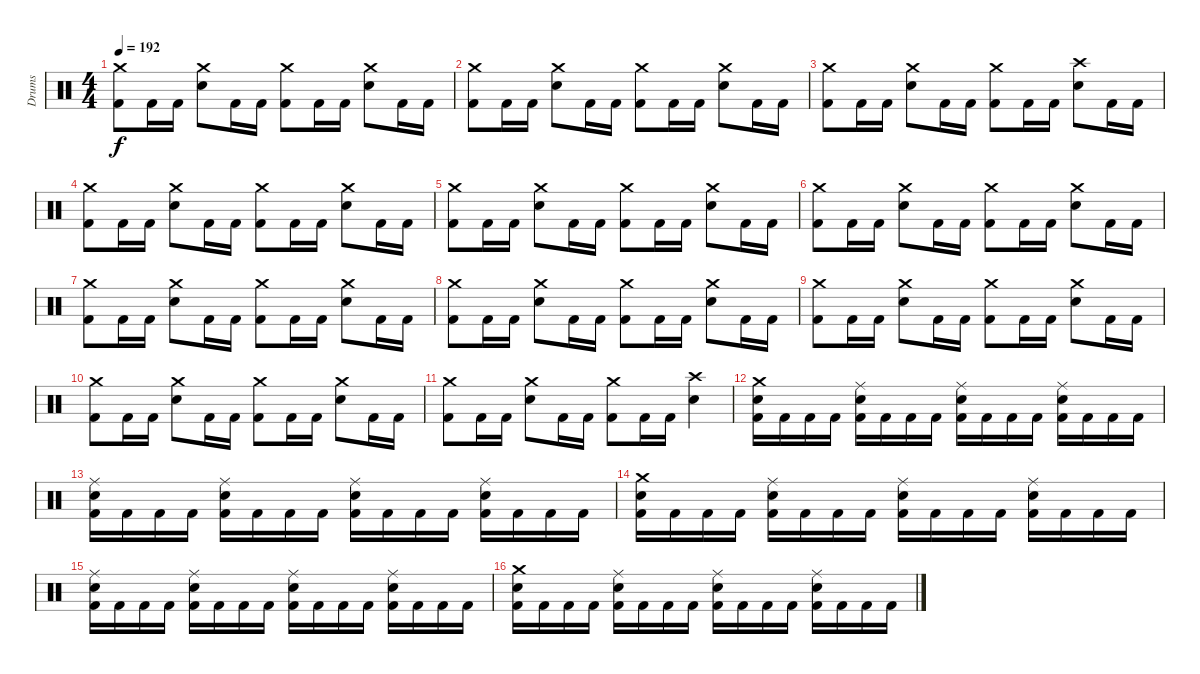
\track ("Drums" "Drums") {instrument percussion}
\staff {score}
\articulation defaults
\ts (4 4)
\tempo 192
\clef neutral
\ks c
("Crash medium (hit)" "Kick (hit) 2").8{dy f} "Kick (hit) 2".16 "Kick (hit) 2".16 ("Crash medium (hit)" "Electric Snare (hit)").8 "Kick (hit) 2".16 "Kick (hit) 2".16 ("Crash medium (hit)" "Kick (hit) 2").8 "Kick (hit) 2".16 "Kick (hit) 2".16 ("Crash medium (hit)" "Electric Snare (hit)").8 "Kick (hit) 2".16 "Kick (hit) 2".16 |
("Crash medium (hit)" "Kick (hit) 2").8 "Kick (hit) 2".16 "Kick (hit) 2".16 ("Crash medium (hit)" "Electric Snare (hit)").8 "Kick (hit) 2".16 "Kick (hit) 2".16 ("Crash medium (hit)" "Kick (hit) 2").8 "Kick (hit) 2".16 "Kick (hit) 2".16 ("Crash medium (hit)" "Electric Snare (hit)").8 "Kick (hit) 2".16 "Kick (hit) 2".16 |
("Crash medium (hit)" "Kick (hit) 2").8 "Kick (hit) 2".16 "Kick (hit) 2".16 ("Crash medium (hit)" "Electric Snare (hit)").8 "Kick (hit) 2".16 "Kick (hit) 2".16 ("Crash medium (hit)" "Kick (hit) 2").8 "Kick (hit) 2".16 "Kick (hit) 2".16 ("Crash high (hit)" "Electric Snare (hit)").8 "Kick (hit) 2".16 "Kick (hit) 2".16 |
("Crash medium (hit)" "Kick (hit) 2").8 "Kick (hit) 2".16 "Kick (hit) 2".16 ("Crash medium (hit)" "Electric Snare (hit)").8 "Kick (hit) 2".16 "Kick (hit) 2".16 ("Crash medium (hit)" "Kick (hit) 2").8 "Kick (hit) 2".16 "Kick (hit) 2".16 ("Crash medium (hit)" "Electric Snare (hit)").8 "Kick (hit) 2".16 "Kick (hit) 2".16 |
("Crash medium (hit)" "Kick (hit) 2").8 "Kick (hit) 2".16 "Kick (hit) 2".16 ("Crash medium (hit)" "Electric Snare (hit)").8 "Kick (hit) 2".16 "Kick (hit) 2".16 ("Crash medium (hit)" "Kick (hit) 2").8 "Kick (hit) 2".16 "Kick (hit) 2".16 ("Crash medium (hit)" "Electric Snare (hit)").8 "Kick (hit) 2".16 "Kick (hit) 2".16 |
("Crash medium (hit)" "Kick (hit) 2").8 "Kick (hit) 2".16 "Kick (hit) 2".16 ("Crash medium (hit)" "Electric Snare (hit)").8 "Kick (hit) 2".16 "Kick (hit) 2".16 ("Crash medium (hit)" "Kick (hit) 2").8 "Kick (hit) 2".16 "Kick (hit) 2".16 ("Crash medium (hit)" "Electric Snare (hit)").8 "Kick (hit) 2".16 "Kick (hit) 2".16 |
("Crash medium (hit)" "Kick (hit) 2").8 "Kick (hit) 2".16 "Kick (hit) 2".16 ("Crash medium (hit)" "Electric Snare (hit)").8 "Kick (hit) 2".16 "Kick (hit) 2".16 ("Crash medium (hit)" "Kick (hit) 2").8 "Kick (hit) 2".16 "Kick (hit) 2".16 ("Crash medium (hit)" "Electric Snare (hit)").8 "Kick (hit) 2".16 "Kick (hit) 2".16 |
("Crash medium (hit)" "Kick (hit) 2").8 "Kick (hit) 2".16 "Kick (hit) 2".16 ("Crash medium (hit)" "Electric Snare (hit)").8 "Kick (hit) 2".16 "Kick (hit) 2".16 ("Crash medium (hit)" "Kick (hit) 2").8 "Kick (hit) 2".16 "Kick (hit) 2".16 ("Crash medium (hit)" "Electric Snare (hit)").8 "Kick (hit) 2".16 "Kick (hit) 2".16 |
("Crash medium (hit)" "Kick (hit) 2").8 "Kick (hit) 2".16 "Kick (hit) 2".16 ("Crash medium (hit)" "Electric Snare (hit)").8 "Kick (hit) 2".16 "Kick (hit) 2".16 ("Crash medium (hit)" "Kick (hit) 2").8 "Kick (hit) 2".16 "Kick (hit) 2".16 ("Crash medium (hit)" "Electric Snare (hit)").8 "Kick (hit) 2".16 "Kick (hit) 2".16 |
("Crash medium (hit)" "Kick (hit) 2").8 "Kick (hit) 2".16 "Kick (hit) 2".16 ("Crash medium (hit)" "Electric Snare (hit)").8 "Kick (hit) 2".16 "Kick (hit) 2".16 ("Crash medium (hit)" "Kick (hit) 2").8 "Kick (hit) 2".16 "Kick (hit) 2".16 ("Crash medium (hit)" "Electric Snare (hit)").8 "Kick (hit) 2".16 "Kick (hit) 2".16 |
("Crash medium (hit)" "Kick (hit) 2").8 "Kick (hit) 2".16 "Kick (hit) 2".16 ("Crash medium (hit)" "Electric Snare (hit)").8 "Kick (hit) 2".16 "Kick (hit) 2".16 ("Crash medium (hit)" "Kick (hit) 2").8 "Kick (hit) 2".16 "Kick (hit) 2".16 ("Crash high (hit)" "Electric Snare (hit)").4 |
("Crash medium (hit)" "Electric Snare (hit)" "Kick (hit) 2").16 "Kick (hit) 2".16 "Kick (hit) 2".16 "Kick (hit) 2".16 ("Ride (middle)" "Electric Snare (hit)" "Kick (hit) 2").16 "Kick (hit) 2".16 "Kick (hit) 2".16 "Kick (hit) 2".16 ("Ride (middle)" "Electric Snare (hit)" "Kick (hit) 2").16 "Kick (hit) 2".16 "Kick (hit) 2".16 "Kick (hit) 2".16 ("Ride (middle)" "Electric Snare (hit)" "Kick (hit) 2").16 "Kick (hit) 2".16 "Kick (hit) 2".16 "Kick (hit) 2".16 |
("Ride (middle)" "Electric Snare (hit)" "Kick (hit) 2").16 "Kick (hit) 2".16 "Kick (hit) 2".16 "Kick (hit) 2".16 ("Ride (middle)" "Electric Snare (hit)" "Kick (hit) 2").16 "Kick (hit) 2".16 "Kick (hit) 2".16 "Kick (hit) 2".16 ("Ride (middle)" "Electric Snare (hit)" "Kick (hit) 2").16 "Kick (hit) 2".16 "Kick (hit) 2".16 "Kick (hit) 2".16 ("Ride (middle)" "Electric Snare (hit)" "Kick (hit) 2").16 "Kick (hit) 2".16 "Kick (hit) 2".16 "Kick (hit) 2".16 |
("Crash medium (hit)" "Electric Snare (hit)" "Kick (hit) 2").16 "Kick (hit) 2".16 "Kick (hit) 2".16 "Kick (hit) 2".16 ("Ride (middle)" "Electric Snare (hit)" "Kick (hit) 2").16 "Kick (hit) 2".16 "Kick (hit) 2".16 "Kick (hit) 2".16 ("Ride (middle)" "Electric Snare (hit)" "Kick (hit) 2").16 "Kick (hit) 2".16 "Kick (hit) 2".16 "Kick (hit) 2".16 ("Ride (middle)" "Electric Snare (hit)" "Kick (hit) 2").16 "Kick (hit) 2".16 "Kick (hit) 2".16 "Kick (hit) 2".16 |
("Ride (middle)" "Electric Snare (hit)" "Kick (hit) 2").16 "Kick (hit) 2".16 "Kick (hit) 2".16 "Kick (hit) 2".16 ("Ride (middle)" "Electric Snare (hit)" "Kick (hit) 2").16 "Kick (hit) 2".16 "Kick (hit) 2".16 "Kick (hit) 2".16 ("Ride (middle)" "Electric Snare (hit)" "Kick (hit) 2").16 "Kick (hit) 2".16 "Kick (hit) 2".16 "Kick (hit) 2".16 ("Ride (middle)" "Electric Snare (hit)" "Kick (hit) 2").16 "Kick (hit) 2".16 "Kick (hit) 2".16 "Kick (hit) 2".16 |
("Crash medium (hit)" "Electric Snare (hit)" "Kick (hit) 2").16 "Kick (hit) 2".16 "Kick (hit) 2".16 "Kick (hit) 2".16 ("Ride (middle)" "Electric Snare (hit)" "Kick (hit) 2").16 "Kick (hit) 2".16 "Kick (hit) 2".16 "Kick (hit) 2".16 ("Ride (middle)" "Electric Snare (hit)" "Kick (hit) 2").16 "Kick (hit) 2".16 "Kick (hit) 2".16 "Kick (hit) 2".16 ("Ride (middle)" "Electric Snare (hit)" "Kick (hit) 2").16 "Kick (hit) 2".16 "Kick (hit) 2".16 "Kick (hit) 2".16
